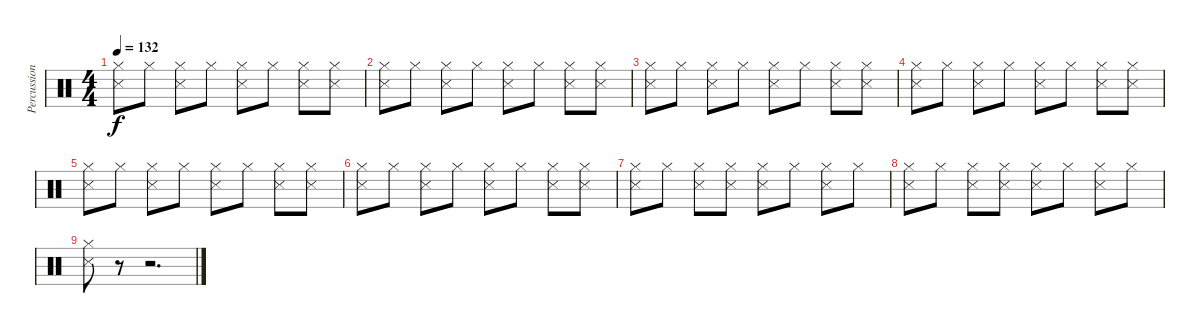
\track ("Percussion" "Percussion") {instrument percussion}
\staff {score}
\articulation defaults
\ts (4 4)
\tempo 132
\clef neutral
\ks c
("Hi-Hat (closed)" "Snare (side stick) 3").8{dy f} "Hi-Hat (closed)".8 ("Hi-Hat (closed)" "Snare (side stick) 3").8 "Hi-Hat (closed)".8 ("Hi-Hat (closed)" "Snare (side stick) 3").8 "Hi-Hat (closed)".8 ("Hi-Hat (closed)" "Snare (side stick) 3").8 ("Hi-Hat (closed)" "Snare (side stick) 3").8 |
("Hi-Hat (closed)" "Snare (side stick) 3").8 "Hi-Hat (closed)".8 ("Hi-Hat (closed)" "Snare (side stick) 3").8 "Hi-Hat (closed)".8 ("Hi-Hat (closed)" "Snare (side stick) 3").8 "Hi-Hat (closed)".8 ("Hi-Hat (closed)" "Snare (side stick) 3").8 ("Hi-Hat (closed)" "Snare (side stick) 3").8 |
("Hi-Hat (closed)" "Snare (side stick) 3").8 "Hi-Hat (closed)".8 ("Hi-Hat (closed)" "Snare (side stick) 3").8 "Hi-Hat (closed)".8 ("Hi-Hat (closed)" "Snare (side stick) 3").8 "Hi-Hat (closed)".8 ("Hi-Hat (closed)" "Snare (side stick) 3").8 ("Hi-Hat (closed)" "Snare (side stick) 3").8 |
("Hi-Hat (closed)" "Snare (side stick) 3").8 "Hi-Hat (closed)".8 ("Hi-Hat (closed)" "Snare (side stick) 3").8 "Hi-Hat (closed)".8 ("Hi-Hat (closed)" "Snare (side stick) 3").8 "Hi-Hat (closed)".8 ("Hi-Hat (closed)" "Snare (side stick) 3").8 ("Hi-Hat (closed)" "Snare (side stick) 3").8 |
("Hi-Hat (closed)" "Snare (side stick) 3").8 "Hi-Hat (closed)".8 ("Hi-Hat (closed)" "Snare (side stick) 3").8 "Hi-Hat (closed)".8 ("Hi-Hat (closed)" "Snare (side stick) 3").8 "Hi-Hat (closed)".8 ("Hi-Hat (closed)" "Snare (side stick) 3").8 ("Hi-Hat (closed)" "Snare (side stick) 3").8 |
("Hi-Hat (closed)" "Snare (side stick) 3").8 "Hi-Hat (closed)".8 ("Hi-Hat (closed)" "Snare (side stick) 3").8 "Hi-Hat (closed)".8 ("Hi-Hat (closed)" "Snare (side stick) 3").8 "Hi-Hat (closed)".8 ("Hi-Hat (closed)" "Snare (side stick) 3").8 ("Hi-Hat (closed)" "Snare (side stick) 3").8 |
("Hi-Hat (closed)" "Snare (side stick) 3").8 "Hi-Hat (closed)".8 ("Hi-Hat (closed)" "Snare (side stick) 3").8 ("Hi-Hat (closed)" "Snare (side stick) 3").8 ("Hi-Hat (closed)" "Snare (side stick) 3").8 "Hi-Hat (closed)".8 ("Hi-Hat (closed)" "Snare (side stick) 3").8 "Hi-Hat (closed)".8 |
("Hi-Hat (closed)" "Snare (side stick) 3").8 "Hi-Hat (closed)".8 ("Hi-Hat (closed)" "Snare (side stick) 3").8 ("Hi-Hat (closed)" "Snare (side stick) 3").8 ("Hi-Hat (closed)" "Snare (side stick) 3").8 "Hi-Hat (closed)".8 ("Hi-Hat (closed)" "Snare (side stick) 3").8 "Hi-Hat (closed)".8 |
("Hi-Hat (closed)" "Snare (side stick) 3").8 r.8 r.2{d}
